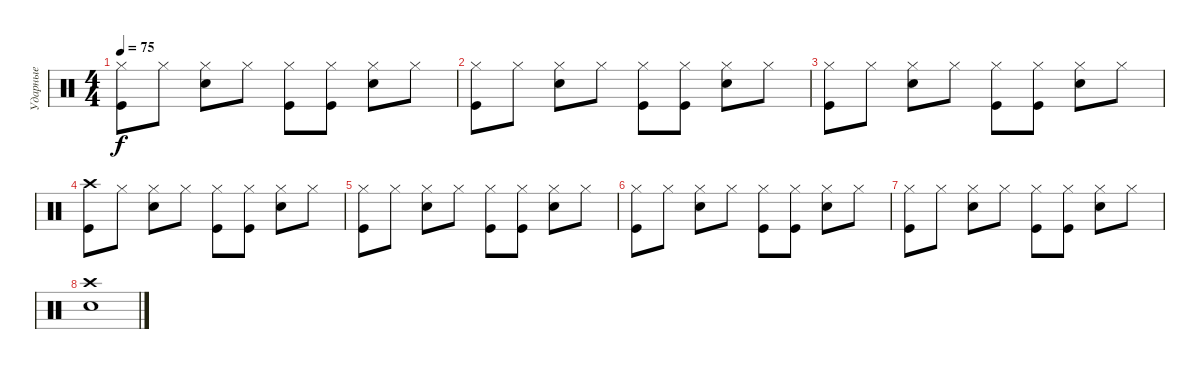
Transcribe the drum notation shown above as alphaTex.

\track ("Ударные" "Ударные") {instrument percussion}
\staff {score}
\articulation defaults
\ts (4 4)
\tempo 75
\clef neutral
\ks c
("Hi-Hat (closed)" "Kick (hit)").8{dy f} "Hi-Hat (closed)".8 ("Hi-Hat (closed)" "Snare (hit) 2").8 "Hi-Hat (closed)".8 ("Hi-Hat (closed)" "Kick (hit)").8 ("Hi-Hat (closed)" "Kick (hit)").8 ("Hi-Hat (closed)" "Snare (hit) 2").8 "Hi-Hat (closed)".8 |
("Hi-Hat (closed)" "Kick (hit)").8 "Hi-Hat (closed)".8 ("Hi-Hat (closed)" "Snare (hit) 2").8 "Hi-Hat (closed)".8 ("Hi-Hat (closed)" "Kick (hit)").8 ("Hi-Hat (closed)" "Kick (hit)").8 ("Hi-Hat (closed)" "Snare (hit) 2").8 "Hi-Hat (closed)".8 |
("Hi-Hat (closed)" "Kick (hit)").8 "Hi-Hat (closed)".8 ("Hi-Hat (closed)" "Snare (hit) 2").8 "Hi-Hat (closed)".8 ("Hi-Hat (closed)" "Kick (hit)").8 ("Hi-Hat (closed)" "Kick (hit)").8 ("Hi-Hat (closed)" "Snare (hit) 2").8 "Hi-Hat (closed)".8 |
("Crash high (hit)" "Kick (hit)").8 "Hi-Hat (closed)".8 ("Hi-Hat (closed)" "Snare (hit) 2").8 "Hi-Hat (closed)".8 ("Hi-Hat (closed)" "Kick (hit)").8 ("Hi-Hat (closed)" "Kick (hit)").8 ("Hi-Hat (closed)" "Snare (hit) 2").8 "Hi-Hat (closed)".8 |
("Hi-Hat (closed)" "Kick (hit)").8 "Hi-Hat (closed)".8 ("Hi-Hat (closed)" "Snare (hit) 2").8 "Hi-Hat (closed)".8 ("Hi-Hat (closed)" "Kick (hit)").8 ("Hi-Hat (closed)" "Kick (hit)").8 ("Hi-Hat (closed)" "Snare (hit) 2").8 "Hi-Hat (closed)".8 |
("Hi-Hat (closed)" "Kick (hit)").8 "Hi-Hat (closed)".8 ("Hi-Hat (closed)" "Snare (hit) 2").8 "Hi-Hat (closed)".8 ("Hi-Hat (closed)" "Kick (hit)").8 ("Hi-Hat (closed)" "Kick (hit)").8 ("Hi-Hat (closed)" "Snare (hit) 2").8 "Hi-Hat (closed)".8 |
("Hi-Hat (closed)" "Kick (hit)").8 "Hi-Hat (closed)".8 ("Hi-Hat (closed)" "Snare (hit) 2").8 "Hi-Hat (closed)".8 ("Hi-Hat (closed)" "Kick (hit)").8 ("Hi-Hat (closed)" "Kick (hit)").8 ("Hi-Hat (closed)" "Snare (hit) 2").8 "Hi-Hat (closed)".8 |
("Crash high (hit)" "Snare (hit) 2").1
